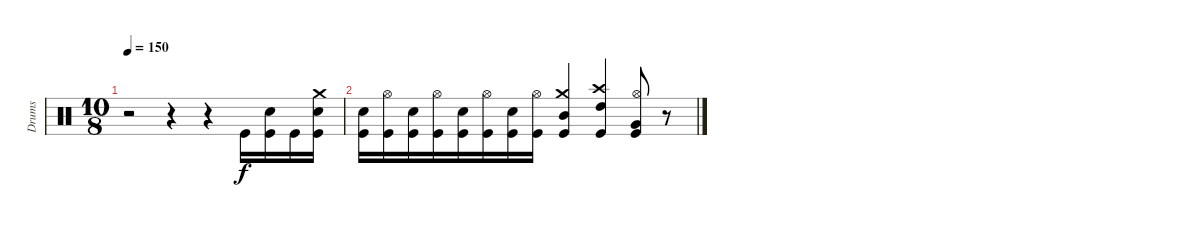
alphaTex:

\track ("Drums" "Drums") {instrument percussion}
\staff {score}
\articulation defaults
\ts (10 8)
\tempo 150
\clef neutral
\ks c
r.2{dy f} r.4 r.4 "Kick (hit)".16 ("Snare (hit) 2" "Kick (hit)").16 "Kick (hit)".16 ("Crash medium (hit)" "Snare (hit) 2" "Kick (hit)").16 |
("Snare (hit) 2" "Kick (hit)").16 ("Hi-Hat (open)" "Kick (hit)").16 ("Snare (hit) 2" "Kick (hit)").16 ("Hi-Hat (open)" "Kick (hit)").16 ("Snare (hit) 2" "Kick (hit)").16 ("Hi-Hat (open)" "Kick (hit)").16 ("Snare (hit) 2" "Kick (hit)").16 ("Hi-Hat (open)" "Kick (hit)").16 ("Crash medium (hit)" "Mid Tom (hit)" "Kick (hit)").4 ("Crash high (hit)" "High Tom (hit)" "Kick (hit)").4 ("Hi-Hat (open)" "Very Low Tom (hit)" "Kick (hit)").8 r.8
